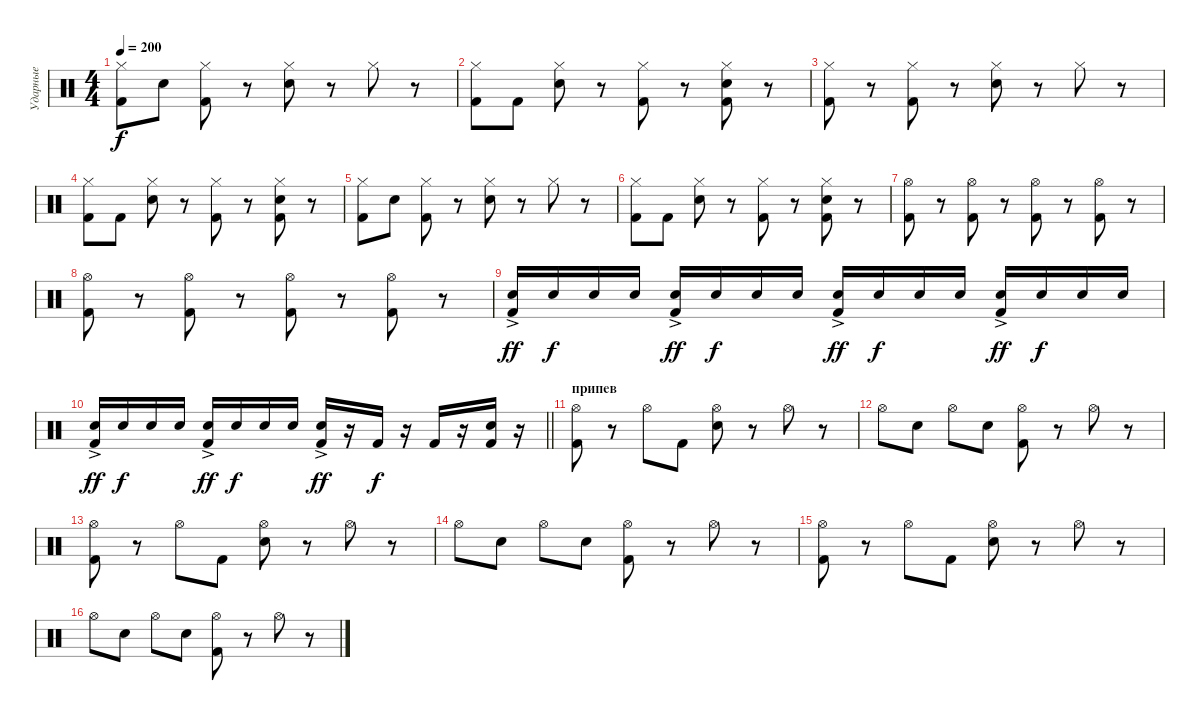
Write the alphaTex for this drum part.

\track ("Ударные" "Ударные") {instrument percussion}
\staff {score}
\articulation defaults
\ts (4 4)
\tempo 200
\clef neutral
\ks c
("Hi-Hat (closed)" "Kick (hit) 2").8{dy f} "Electric Snare (hit)".8 ("Hi-Hat (closed)" "Kick (hit) 2").8 r.8 ("Hi-Hat (closed)" "Electric Snare (hit)").8 r.8 "Hi-Hat (closed)".8 r.8 |
("Hi-Hat (closed)" "Kick (hit) 2").8 "Kick (hit) 2".8 ("Hi-Hat (closed)" "Electric Snare (hit)").8 r.8 ("Hi-Hat (closed)" "Kick (hit) 2").8 r.8 ("Hi-Hat (closed)" "Electric Snare (hit)" "Kick (hit) 2").8 r.8 |
("Hi-Hat (closed)" "Kick (hit) 2").8 r.8 ("Hi-Hat (closed)" "Kick (hit) 2").8 r.8 ("Hi-Hat (closed)" "Electric Snare (hit)").8 r.8 "Hi-Hat (closed)".8 r.8 |
("Hi-Hat (closed)" "Kick (hit) 2").8 "Kick (hit) 2".8 ("Hi-Hat (closed)" "Electric Snare (hit)").8 r.8 ("Hi-Hat (closed)" "Kick (hit) 2").8 r.8 ("Hi-Hat (closed)" "Electric Snare (hit)" "Kick (hit) 2").8 r.8 |
("Hi-Hat (closed)" "Kick (hit) 2").8 "Electric Snare (hit)".8 ("Hi-Hat (closed)" "Kick (hit) 2").8 r.8 ("Hi-Hat (closed)" "Electric Snare (hit)").8 r.8 "Hi-Hat (closed)".8 r.8 |
("Hi-Hat (closed)" "Kick (hit) 2").8 "Kick (hit) 2".8 ("Hi-Hat (closed)" "Electric Snare (hit)").8 r.8 ("Hi-Hat (closed)" "Kick (hit) 2").8 r.8 ("Hi-Hat (closed)" "Electric Snare (hit)" "Kick (hit) 2").8 r.8 |
("Hi-Hat (open)" "Kick (hit) 2").8 r.8 ("Hi-Hat (open)" "Kick (hit) 2").8 r.8 ("Hi-Hat (open)" "Kick (hit) 2").8 r.8 ("Hi-Hat (open)" "Kick (hit) 2").8 r.8 |
("Hi-Hat (open)" "Kick (hit) 2").8 r.8 ("Hi-Hat (open)" "Kick (hit) 2").8 r.8 ("Hi-Hat (open)" "Kick (hit) 2").8 r.8 ("Hi-Hat (open)" "Kick (hit) 2").8 r.8 |
("Electric Snare (hit)"{ac} "Kick (hit) 2").16{dy ff volume 6} "Electric Snare (hit)".16{dy f volume 13} "Electric Snare (hit)".16 "Electric Snare (hit)".16 ("Electric Snare (hit)"{ac} "Kick (hit) 2").16{dy ff} "Electric Snare (hit)".16{dy f} "Electric Snare (hit)".16 "Electric Snare (hit)".16 ("Electric Snare (hit)"{ac} "Kick (hit) 2").16{dy ff} "Electric Snare (hit)".16{dy f} "Electric Snare (hit)".16 "Electric Snare (hit)".16 ("Electric Snare (hit)"{ac} "Kick (hit) 2").16{dy ff} "Electric Snare (hit)".16{dy f} "Electric Snare (hit)".16 "Electric Snare (hit)".16 |
\barLineRight lightlight
("Electric Snare (hit)"{ac} "Kick (hit) 2").16{dy ff} "Electric Snare (hit)".16{dy f} "Electric Snare (hit)".16 "Electric Snare (hit)".16 ("Electric Snare (hit)"{ac} "Kick (hit) 2").16{dy ff} "Electric Snare (hit)".16{dy f} "Electric Snare (hit)".16 "Electric Snare (hit)".16 ("Electric Snare (hit)"{ac} "Kick (hit) 2").16{dy ff} r.16 "Kick (hit) 2".16{dy f} r.16 "Kick (hit) 2".16 r.16 ("Electric Snare (hit)" "Kick (hit) 2").16 r.16 |
\section ("" "припев")
("Hi-Hat (open)" "Kick (hit) 2").8 r.8 "Hi-Hat (open)".8 "Kick (hit) 2".8 ("Hi-Hat (open)" "Electric Snare (hit)").8 r.8 "Hi-Hat (open)".8 r.8 |
"Hi-Hat (open)".8 "Electric Snare (hit)".8 "Hi-Hat (open)".8 "Electric Snare (hit)".8 ("Hi-Hat (open)" "Kick (hit) 2").8 r.8 "Hi-Hat (open)".8 r.8 |
("Hi-Hat (open)" "Kick (hit) 2").8 r.8 "Hi-Hat (open)".8 "Kick (hit) 2".8 ("Hi-Hat (open)" "Electric Snare (hit)").8 r.8 "Hi-Hat (open)".8 r.8 |
"Hi-Hat (open)".8 "Electric Snare (hit)".8 "Hi-Hat (open)".8 "Electric Snare (hit)".8 ("Hi-Hat (open)" "Kick (hit) 2").8 r.8 "Hi-Hat (open)".8 r.8 |
("Hi-Hat (open)" "Kick (hit) 2").8 r.8 "Hi-Hat (open)".8 "Kick (hit) 2".8 ("Hi-Hat (open)" "Electric Snare (hit)").8 r.8 "Hi-Hat (open)".8 r.8 |
"Hi-Hat (open)".8 "Electric Snare (hit)".8 "Hi-Hat (open)".8 "Electric Snare (hit)".8 ("Hi-Hat (open)" "Kick (hit) 2").8 r.8 "Hi-Hat (open)".8 r.8
